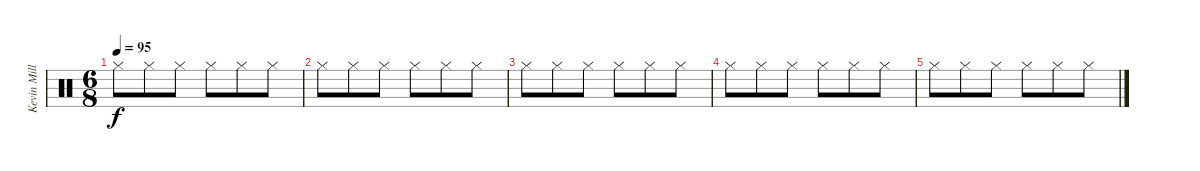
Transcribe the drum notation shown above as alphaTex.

\track ("Kevin Miller (Drums)" "Kevin Mill") {instrument percussion}
\staff {score}
\articulation defaults
\ts (6 8)
\tempo 95
\clef neutral
\ks c "Hi-Hat (closed)".8{dy f} "Hi-Hat (closed)".8 "Hi-Hat (closed)".8 "Hi-Hat (closed)".8 "Hi-Hat (closed)".8 "Hi-Hat (closed)".8
|
"Hi-Hat (closed)".8 "Hi-Hat (closed)".8 "Hi-Hat (closed)".8 "Hi-Hat (closed)".8 "Hi-Hat (closed)".8 "Hi-Hat (closed)".8 |
"Hi-Hat (closed)".8 "Hi-Hat (closed)".8 "Hi-Hat (closed)".8 "Hi-Hat (closed)".8 "Hi-Hat (closed)".8 "Hi-Hat (closed)".8 |
"Hi-Hat (closed)".8 "Hi-Hat (closed)".8 "Hi-Hat (closed)".8 "Hi-Hat (closed)".8 "Hi-Hat (closed)".8 "Hi-Hat (closed)".8 |
"Hi-Hat (closed)".8 "Hi-Hat (closed)".8 "Hi-Hat (closed)".8 "Hi-Hat (closed)".8 "Hi-Hat (closed)".8 "Hi-Hat (closed)".8
